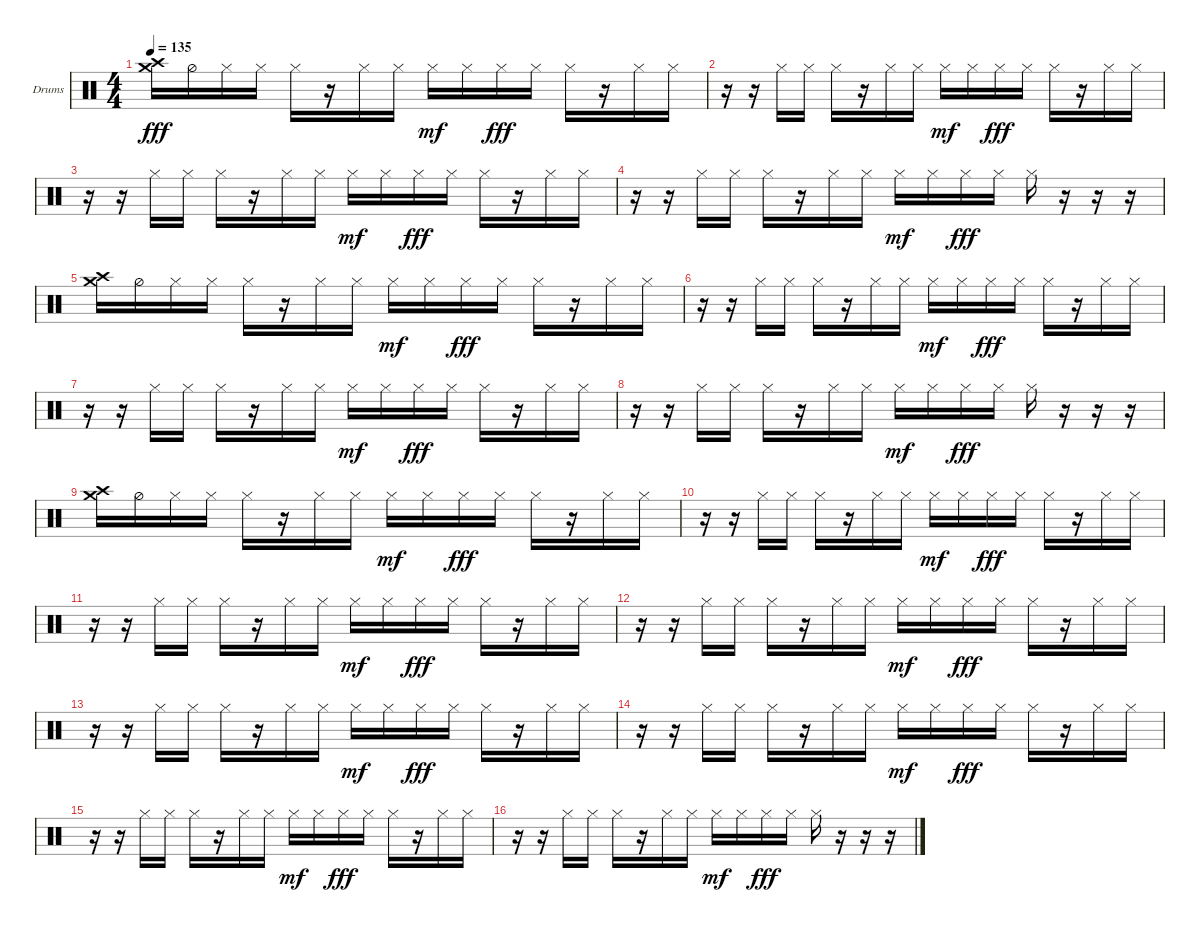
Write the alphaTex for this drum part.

\defaultSystemsLayout 4
\bracketExtendMode groupsimilarinstruments
\firstSystemTrackNameOrientation horizontal
\otherSystemsTrackNameOrientation horizontal
\track ("Matt Helders" "Drums") {instrument percussion}
\staff {score}
\articulation defaults
\ts (4 4)
\tempo 135
\clef neutral
\ks c
("Crash high (hit)" "Crash medium (hit)").16{dy fff} "Hi-Hat (half)".16 "Hi-Hat (closed)".16 "Hi-Hat (closed)".16 "Hi-Hat (closed)".16 r.16 "Hi-Hat (closed)".16 "Hi-Hat (closed)".16 "Hi-Hat (closed)".16{dy mf} "Hi-Hat (closed)".16 "Hi-Hat (closed)".16{dy fff} "Hi-Hat (closed)".16 "Hi-Hat (closed)".16 r.16 "Hi-Hat (closed)".16 "Hi-Hat (closed)".16 |
r.16 r.16 "Hi-Hat (closed)".16 "Hi-Hat (closed)".16 "Hi-Hat (closed)".16 r.16 "Hi-Hat (closed)".16 "Hi-Hat (closed)".16 "Hi-Hat (closed)".16{dy mf} "Hi-Hat (closed)".16 "Hi-Hat (closed)".16{dy fff} "Hi-Hat (closed)".16 "Hi-Hat (closed)".16 r.16 "Hi-Hat (closed)".16 "Hi-Hat (closed)".16 |
r.16 r.16 "Hi-Hat (closed)".16 "Hi-Hat (closed)".16 "Hi-Hat (closed)".16 r.16 "Hi-Hat (closed)".16 "Hi-Hat (closed)".16 "Hi-Hat (closed)".16{dy mf} "Hi-Hat (closed)".16 "Hi-Hat (closed)".16{dy fff} "Hi-Hat (closed)".16 "Hi-Hat (closed)".16 r.16 "Hi-Hat (closed)".16 "Hi-Hat (closed)".16 |
r.16 r.16 "Hi-Hat (closed)".16 "Hi-Hat (closed)".16 "Hi-Hat (closed)".16 r.16 "Hi-Hat (closed)".16 "Hi-Hat (closed)".16 "Hi-Hat (closed)".16{dy mf} "Hi-Hat (closed)".16 "Hi-Hat (closed)".16{dy fff} "Hi-Hat (closed)".16 "Hi-Hat (closed)".16 r.16 r.16 r.16 |
("Crash high (hit)" "Crash medium (hit)").16 "Hi-Hat (half)".16 "Hi-Hat (closed)".16 "Hi-Hat (closed)".16 "Hi-Hat (closed)".16 r.16 "Hi-Hat (closed)".16 "Hi-Hat (closed)".16 "Hi-Hat (closed)".16{dy mf} "Hi-Hat (closed)".16 "Hi-Hat (closed)".16{dy fff} "Hi-Hat (closed)".16 "Hi-Hat (closed)".16 r.16 "Hi-Hat (closed)".16 "Hi-Hat (closed)".16 |
r.16 r.16 "Hi-Hat (closed)".16 "Hi-Hat (closed)".16 "Hi-Hat (closed)".16 r.16 "Hi-Hat (closed)".16 "Hi-Hat (closed)".16 "Hi-Hat (closed)".16{dy mf} "Hi-Hat (closed)".16 "Hi-Hat (closed)".16{dy fff} "Hi-Hat (closed)".16 "Hi-Hat (closed)".16 r.16 "Hi-Hat (closed)".16 "Hi-Hat (closed)".16 |
r.16 r.16 "Hi-Hat (closed)".16 "Hi-Hat (closed)".16 "Hi-Hat (closed)".16 r.16 "Hi-Hat (closed)".16 "Hi-Hat (closed)".16 "Hi-Hat (closed)".16{dy mf} "Hi-Hat (closed)".16 "Hi-Hat (closed)".16{dy fff} "Hi-Hat (closed)".16 "Hi-Hat (closed)".16 r.16 "Hi-Hat (closed)".16 "Hi-Hat (closed)".16 |
r.16 r.16 "Hi-Hat (closed)".16 "Hi-Hat (closed)".16 "Hi-Hat (closed)".16 r.16 "Hi-Hat (closed)".16 "Hi-Hat (closed)".16 "Hi-Hat (closed)".16{dy mf} "Hi-Hat (closed)".16 "Hi-Hat (closed)".16{dy fff} "Hi-Hat (closed)".16 "Hi-Hat (closed)".16 r.16 r.16 r.16 |
("Crash high (hit)" "Crash medium (hit)").16 "Hi-Hat (half)".16 "Hi-Hat (closed)".16 "Hi-Hat (closed)".16 "Hi-Hat (closed)".16 r.16 "Hi-Hat (closed)".16 "Hi-Hat (closed)".16 "Hi-Hat (closed)".16{dy mf} "Hi-Hat (closed)".16 "Hi-Hat (closed)".16{dy fff} "Hi-Hat (closed)".16 "Hi-Hat (closed)".16 r.16 "Hi-Hat (closed)".16 "Hi-Hat (closed)".16 |
r.16 r.16 "Hi-Hat (closed)".16 "Hi-Hat (closed)".16 "Hi-Hat (closed)".16 r.16 "Hi-Hat (closed)".16 "Hi-Hat (closed)".16 "Hi-Hat (closed)".16{dy mf} "Hi-Hat (closed)".16 "Hi-Hat (closed)".16{dy fff} "Hi-Hat (closed)".16 "Hi-Hat (closed)".16 r.16 "Hi-Hat (closed)".16 "Hi-Hat (closed)".16 |
r.16 r.16 "Hi-Hat (closed)".16 "Hi-Hat (closed)".16 "Hi-Hat (closed)".16 r.16 "Hi-Hat (closed)".16 "Hi-Hat (closed)".16 "Hi-Hat (closed)".16{dy mf} "Hi-Hat (closed)".16 "Hi-Hat (closed)".16{dy fff} "Hi-Hat (closed)".16 "Hi-Hat (closed)".16 r.16 "Hi-Hat (closed)".16 "Hi-Hat (closed)".16 |
r.16 r.16 "Hi-Hat (closed)".16 "Hi-Hat (closed)".16 "Hi-Hat (closed)".16 r.16 "Hi-Hat (closed)".16 "Hi-Hat (closed)".16 "Hi-Hat (closed)".16{dy mf} "Hi-Hat (closed)".16 "Hi-Hat (closed)".16{dy fff} "Hi-Hat (closed)".16 "Hi-Hat (closed)".16 r.16 "Hi-Hat (closed)".16 "Hi-Hat (closed)".16 |
r.16 r.16 "Hi-Hat (closed)".16 "Hi-Hat (closed)".16 "Hi-Hat (closed)".16 r.16 "Hi-Hat (closed)".16 "Hi-Hat (closed)".16 "Hi-Hat (closed)".16{dy mf} "Hi-Hat (closed)".16 "Hi-Hat (closed)".16{dy fff} "Hi-Hat (closed)".16 "Hi-Hat (closed)".16 r.16 "Hi-Hat (closed)".16 "Hi-Hat (closed)".16 |
r.16 r.16 "Hi-Hat (closed)".16 "Hi-Hat (closed)".16 "Hi-Hat (closed)".16 r.16 "Hi-Hat (closed)".16 "Hi-Hat (closed)".16 "Hi-Hat (closed)".16{dy mf} "Hi-Hat (closed)".16 "Hi-Hat (closed)".16{dy fff} "Hi-Hat (closed)".16 "Hi-Hat (closed)".16 r.16 "Hi-Hat (closed)".16 "Hi-Hat (closed)".16 |
r.16 r.16 "Hi-Hat (closed)".16 "Hi-Hat (closed)".16 "Hi-Hat (closed)".16 r.16 "Hi-Hat (closed)".16 "Hi-Hat (closed)".16 "Hi-Hat (closed)".16{dy mf} "Hi-Hat (closed)".16 "Hi-Hat (closed)".16{dy fff} "Hi-Hat (closed)".16 "Hi-Hat (closed)".16 r.16 "Hi-Hat (closed)".16 "Hi-Hat (closed)".16 |
r.16 r.16 "Hi-Hat (closed)".16 "Hi-Hat (closed)".16 "Hi-Hat (closed)".16 r.16 "Hi-Hat (closed)".16 "Hi-Hat (closed)".16 "Hi-Hat (closed)".16{dy mf} "Hi-Hat (closed)".16 "Hi-Hat (closed)".16{dy fff} "Hi-Hat (closed)".16 "Hi-Hat (closed)".16 r.16 r.16 r.16
